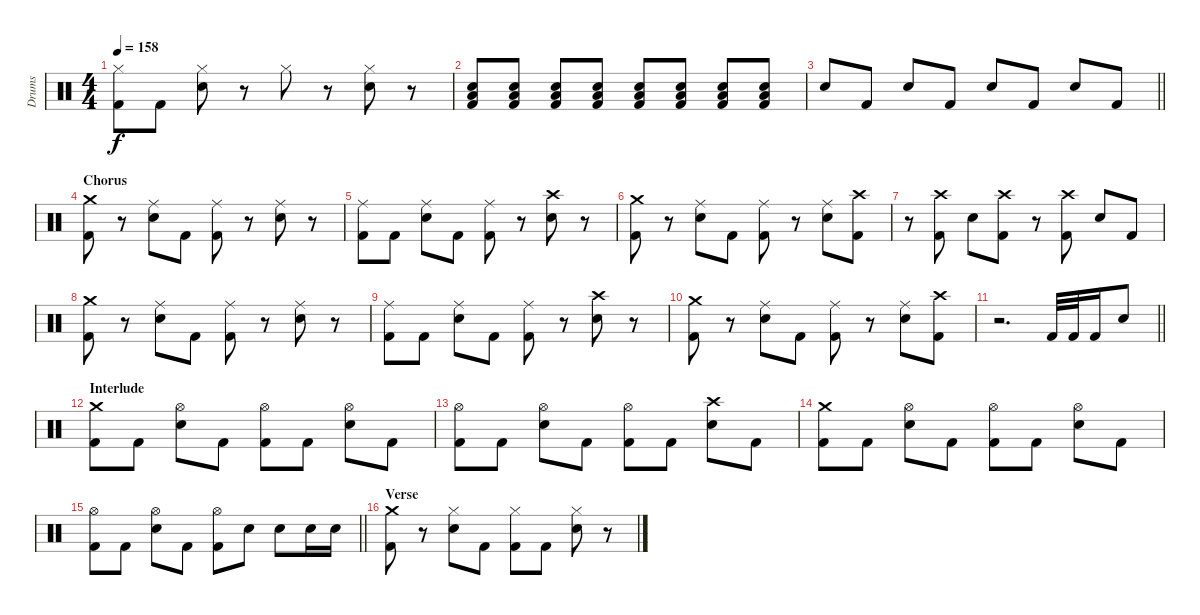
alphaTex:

\track ("Drums" "Drums") {instrument percussion}
\staff {score}
\articulation defaults
\ts (4 4)
\tempo 158
\clef neutral
\ks c
("Hi-Hat (closed)" "Kick (hit) 2").8{dy f} "Kick (hit) 2".8 ("Hi-Hat (closed)" "Electric Snare (hit)").8 r.8 "Hi-Hat (closed)".8 r.8 ("Hi-Hat (closed)" "Electric Snare (hit)").8 r.8 |
("Electric Snare (hit)" "Low Floor Tom (hit)" "Kick (hit) 2").8 ("Electric Snare (hit)" "Low Floor Tom (hit)" "Kick (hit) 2").8 ("Electric Snare (hit)" "Low Floor Tom (hit)" "Kick (hit) 2").8 ("Electric Snare (hit)" "Low Floor Tom (hit)" "Kick (hit) 2").8 ("Electric Snare (hit)" "Low Floor Tom (hit)" "Kick (hit) 2").8 ("Electric Snare (hit)" "Low Floor Tom (hit)" "Kick (hit) 2").8 ("Electric Snare (hit)" "Low Floor Tom (hit)" "Kick (hit) 2").8 ("Electric Snare (hit)" "Low Floor Tom (hit)" "Kick (hit) 2").8 |
\barLineRight lightlight "Electric Snare (hit)".8 "Kick (hit) 2".8 "Electric Snare (hit)".8 "Kick (hit) 2".8 "Electric Snare (hit)".8 "Kick (hit) 2".8 "Electric Snare (hit)".8 "Kick (hit) 2".8
|
\section ("" "Chorus")
("Crash medium (hit)" "Kick (hit) 2").8 r.8 ("Ride (middle)" "Electric Snare (hit)").8 "Kick (hit) 2".8 ("Ride (middle)" "Kick (hit) 2").8 r.8 ("Ride (middle)" "Electric Snare (hit)").8 r.8 |
("Ride (middle)" "Kick (hit) 2").8 "Kick (hit) 2".8 ("Ride (middle)" "Electric Snare (hit)").8 "Kick (hit) 2".8 ("Ride (middle)" "Kick (hit) 2").8 r.8 ("Crash high (hit)" "Electric Snare (hit)").8 r.8 |
("Crash medium (hit)" "Kick (hit) 2").8 r.8 ("Ride (middle)" "Electric Snare (hit)").8 "Kick (hit) 2".8 ("Ride (middle)" "Kick (hit) 2").8 r.8 ("Ride (middle)" "Electric Snare (hit)").8 ("Crash high (hit)" "Kick (hit) 2").8 |
r.8 ("Crash high (hit)" "Kick (hit) 2").8 "Electric Snare (hit)".8 ("Crash high (hit)" "Kick (hit) 2").8 r.8 ("Crash high (hit)" "Kick (hit) 2").8 "Electric Snare (hit)".8 "Kick (hit) 2".8 |
("Crash medium (hit)" "Kick (hit) 2").8 r.8 ("Ride (middle)" "Electric Snare (hit)").8 "Kick (hit) 2".8 ("Ride (middle)" "Kick (hit) 2").8 r.8 ("Ride (middle)" "Electric Snare (hit)").8 r.8 |
("Ride (middle)" "Kick (hit) 2").8 "Kick (hit) 2".8 ("Ride (middle)" "Electric Snare (hit)").8 "Kick (hit) 2".8 ("Ride (middle)" "Kick (hit) 2").8 r.8 ("Crash high (hit)" "Electric Snare (hit)").8 r.8 |
("Crash medium (hit)" "Kick (hit) 2").8 r.8 ("Ride (middle)" "Electric Snare (hit)").8 "Kick (hit) 2".8 ("Ride (middle)" "Kick (hit) 2").8 r.8 ("Ride (middle)" "Electric Snare (hit)").8 ("Crash high (hit)" "Kick (hit) 2").8 |
\barLineRight lightlight
r.2{d} "Kick (hit) 2".32 "Kick (hit) 2".32 "Kick (hit) 2".16 "Electric Snare (hit)".8 |
\section ("" "Interlude")
("Crash medium (hit)" "Kick (hit) 2").8 "Kick (hit) 2".8 ("Hi-Hat (open)" "Electric Snare (hit)").8 "Kick (hit) 2".8 ("Hi-Hat (open)" "Kick (hit) 2").8 "Kick (hit) 2".8 ("Hi-Hat (open)" "Electric Snare (hit)").8 "Kick (hit) 2".8 |
("Hi-Hat (open)" "Kick (hit) 2").8 "Kick (hit) 2".8 ("Hi-Hat (open)" "Electric Snare (hit)").8 "Kick (hit) 2".8 ("Hi-Hat (open)" "Kick (hit) 2").8 "Kick (hit) 2".8 ("Crash high (hit)" "Electric Snare (hit)").8 "Kick (hit) 2".8 |
("Crash medium (hit)" "Kick (hit) 2").8 "Kick (hit) 2".8 ("Hi-Hat (open)" "Electric Snare (hit)").8 "Kick (hit) 2".8 ("Hi-Hat (open)" "Kick (hit) 2").8 "Kick (hit) 2".8 ("Hi-Hat (open)" "Electric Snare (hit)").8 "Kick (hit) 2".8 |
\barLineRight lightlight
("Hi-Hat (open)" "Kick (hit) 2").8 "Kick (hit) 2".8 ("Hi-Hat (open)" "Electric Snare (hit)").8 "Kick (hit) 2".8 ("Hi-Hat (open)" "Kick (hit) 2").8 "Electric Snare (hit)".8 "Electric Snare (hit)".8 "Electric Snare (hit)".16 "Electric Snare (hit)".16 |
\section ("" "Verse")
("Crash medium (hit)" "Kick (hit) 2").8 r.8 ("Hi-Hat (closed)" "Electric Snare (hit)").8 "Kick (hit) 2".8 ("Hi-Hat (closed)" "Kick (hit) 2").8 "Kick (hit) 2".8 ("Hi-Hat (closed)" "Electric Snare (hit)").8 r.8
